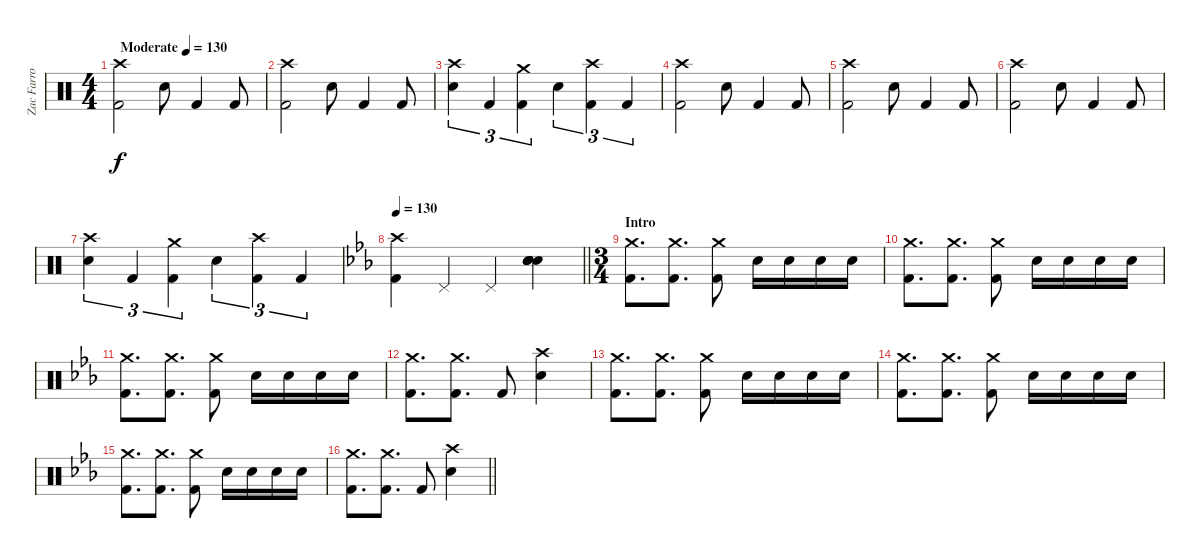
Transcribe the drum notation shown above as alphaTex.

\track ("Zac Farro (Drums)" "Zac Farro ") {instrument percussion}
\staff {score}
\articulation defaults
\ts (4 4)
\tempo (130 "Moderate")
\tempo 190
\tempo (130 "Moderate")
\clef neutral
\ks c
("Crash high (hit)" "Kick (hit) 2").2{dy f} "Electric Snare (hit)".8 "Kick (hit) 2".4 "Kick (hit) 2".8 |
("Crash high (hit)" "Kick (hit) 2").2 "Electric Snare (hit)".8 "Kick (hit) 2".4 "Kick (hit) 2".8 |
("Crash high (hit)" "Electric Snare (hit)").4{tu (3 2)} "Kick (hit) 2".4{tu (3 2)} ("Crash medium (hit)" "Kick (hit) 2").4{tu (3 2)} "Electric Snare (hit)".4{tu (3 2)} ("Crash high (hit)" "Kick (hit) 2").4{tu (3 2)} "Kick (hit) 2".4{tu (3 2)} |
("Crash high (hit)" "Kick (hit) 2").2 "Electric Snare (hit)".8 "Kick (hit) 2".4 "Kick (hit) 2".8 |
("Crash high (hit)" "Kick (hit) 2").2 "Electric Snare (hit)".8 "Kick (hit) 2".4 "Kick (hit) 2".8 |
("Crash high (hit)" "Kick (hit) 2").2 "Electric Snare (hit)".8 "Kick (hit) 2".4 "Kick (hit) 2".8 |
("Crash high (hit)" "Electric Snare (hit)").4{tu (3 2)} "Kick (hit) 2".4{tu (3 2)} ("Crash medium (hit)" "Kick (hit) 2").4{tu (3 2)} "Electric Snare (hit)".4{tu (3 2)} ("Crash high (hit)" "Kick (hit) 2").4{tu (3 2)} "Kick (hit) 2".4{tu (3 2)} |
\tempo 130
\barLineRight lightlight
\ks eb
("Crash high (hit)" "Kick (hit) 2").4 "Pedal Hi-Hat (hit)".4 "Pedal Hi-Hat (hit)".4 ("Electric Snare (hit)" "Electric Snare (hit)" "Electric Snare (hit)" "Snare (hit) 2" "Snare (hit) 2").4 |
\ts (3 4)
\section ("" "Intro")
\ks eb
("Crash medium (hit)" "Kick (hit) 2").8{d} ("Crash medium (hit)" "Kick (hit) 2").8{d} ("Crash medium (hit)" "Kick (hit) 2").8 "Electric Snare (hit)".16 "Electric Snare (hit)".16 "Electric Snare (hit)".16 "Electric Snare (hit)".16 |
("Crash medium (hit)" "Kick (hit) 2").8{d} ("Crash medium (hit)" "Kick (hit) 2").8{d} ("Crash medium (hit)" "Kick (hit) 2").8 "Electric Snare (hit)".16 "Electric Snare (hit)".16 "Electric Snare (hit)".16 "Electric Snare (hit)".16 |
("Crash medium (hit)" "Kick (hit) 2").8{d} ("Crash medium (hit)" "Kick (hit) 2").8{d} ("Crash medium (hit)" "Kick (hit) 2").8 "Electric Snare (hit)".16 "Electric Snare (hit)".16 "Electric Snare (hit)".16 "Electric Snare (hit)".16 |
("Crash medium (hit)" "Kick (hit) 2").8{d} ("Crash medium (hit)" "Kick (hit) 2").8{d} "Kick (hit) 2".8 ("Crash high (hit)" "Electric Snare (hit)").4 |
("Crash medium (hit)" "Kick (hit) 2").8{d} ("Crash medium (hit)" "Kick (hit) 2").8{d} ("Crash medium (hit)" "Kick (hit) 2").8 "Electric Snare (hit)".16 "Electric Snare (hit)".16 "Electric Snare (hit)".16 "Electric Snare (hit)".16 |
("Crash medium (hit)" "Kick (hit) 2").8{d} ("Crash medium (hit)" "Kick (hit) 2").8{d} ("Crash medium (hit)" "Kick (hit) 2").8 "Electric Snare (hit)".16 "Electric Snare (hit)".16 "Electric Snare (hit)".16 "Electric Snare (hit)".16 |
("Crash medium (hit)" "Kick (hit) 2").8{d} ("Crash medium (hit)" "Kick (hit) 2").8{d} ("Crash medium (hit)" "Kick (hit) 2").8 "Electric Snare (hit)".16 "Electric Snare (hit)".16 "Electric Snare (hit)".16 "Electric Snare (hit)".16 |
\barLineRight lightlight
("Crash medium (hit)" "Kick (hit) 2").8{d} ("Crash medium (hit)" "Kick (hit) 2").8{d} "Kick (hit) 2".8 ("Crash high (hit)" "Electric Snare (hit)").4
